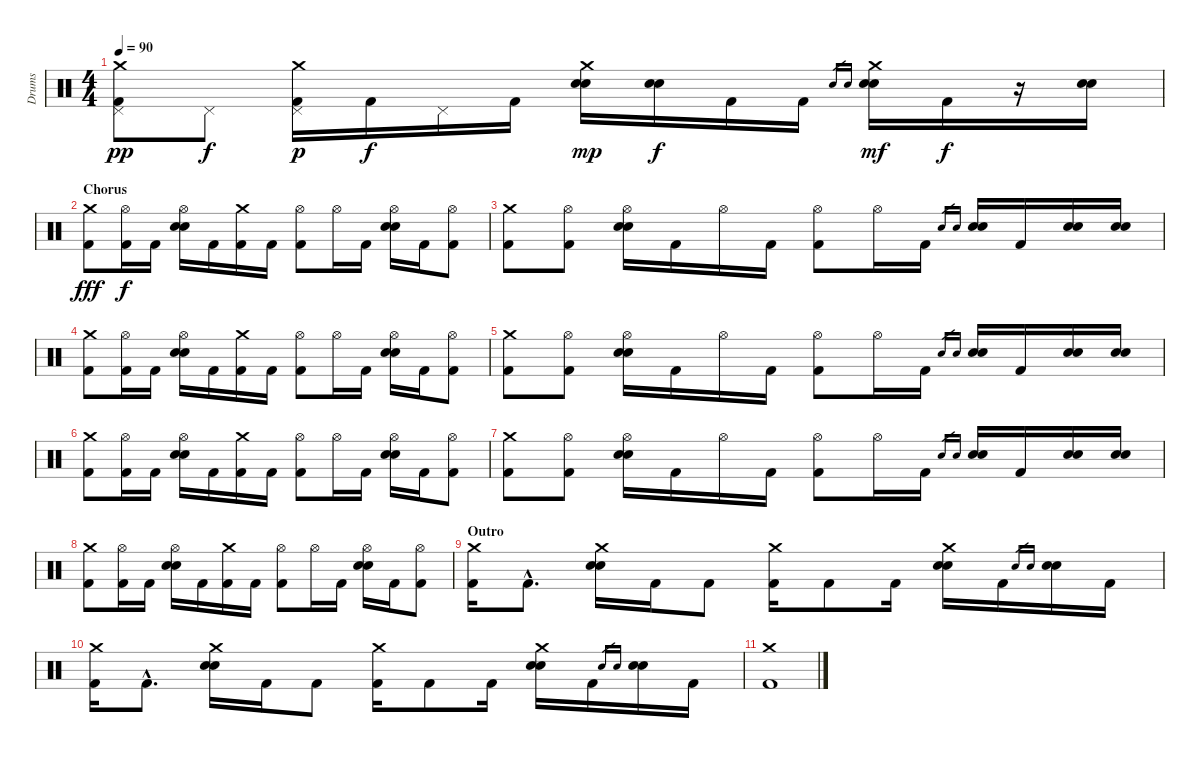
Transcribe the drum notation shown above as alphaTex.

\track ("Drums" "Drums") {instrument percussion}
\staff {score}
\articulation defaults
\ts (4 4)
\tempo 90
\clef neutral
\ks c
("Pedal Hi-Hat (hit)" "Kick (hit) 2" "Crash medium (hit)").8{dy pp} "Pedal Hi-Hat (hit)".8{dy f} ("Pedal Hi-Hat (hit)" "Kick (hit) 2" "Crash medium (hit)").16{dy p} "Kick (hit) 2".16{dy f} "Pedal Hi-Hat (hit)".16 "Kick (hit) 2".16 ("Snare (hit) 2" "Electric Snare (hit)" "Crash medium (hit)").16{dy mp} ("Snare (hit) 2" "Electric Snare (hit)").16{dy f} "Kick (hit) 2".16 "Kick (hit) 2".16 "Snare (hit) 2".16{gr} "Electric Snare (hit)".16{gr} ("Snare (hit) 2" "Electric Snare (hit)" "Crash medium (hit)").16{dy mf} "Kick (hit) 2".16{dy f} r.16 ("Snare (hit) 2" "Electric Snare (hit)").16 |
\section ("" "Chorus")
("Crash medium (hit)" "Kick (hit) 2").8{dy fff} ("Hi-Hat (open)" "Kick (hit) 2").16{dy f} "Kick (hit) 2".16 ("Hi-Hat (open)" "Electric Snare (hit)" "Snare (hit) 2").16 "Kick (hit) 2".16 ("Crash medium (hit)" "Kick (hit) 2").16 "Kick (hit) 2".16 ("Hi-Hat (open)" "Kick (hit) 2").8 "Hi-Hat (open)".16 "Kick (hit) 2".16 ("Hi-Hat (open)" "Electric Snare (hit)" "Snare (hit) 2").16 "Kick (hit) 2".16 ("Hi-Hat (open)" "Kick (hit) 2").8 |
("Crash medium (hit)" "Kick (hit) 2").8 ("Hi-Hat (open)" "Kick (hit) 2").8 ("Hi-Hat (open)" "Electric Snare (hit)" "Snare (hit) 2").16 "Kick (hit) 2".16 "Hi-Hat (open)".16 "Kick (hit) 2".16 ("Hi-Hat (open)" "Kick (hit) 2").8 "Hi-Hat (open)".16 "Kick (hit) 2".16 "Electric Snare (hit)".16{gr} "Snare (hit) 2".16{gr} ("Electric Snare (hit)" "Snare (hit) 2").16 "Kick (hit) 2".16 ("Electric Snare (hit)" "Snare (hit) 2").16 ("Electric Snare (hit)" "Snare (hit) 2").16 |
("Crash medium (hit)" "Kick (hit) 2").8 ("Hi-Hat (open)" "Kick (hit) 2").16 "Kick (hit) 2".16 ("Hi-Hat (open)" "Electric Snare (hit)" "Snare (hit) 2").16 "Kick (hit) 2".16 ("Crash medium (hit)" "Kick (hit) 2").16 "Kick (hit) 2".16 ("Hi-Hat (open)" "Kick (hit) 2").8 "Hi-Hat (open)".16 "Kick (hit) 2".16 ("Hi-Hat (open)" "Electric Snare (hit)" "Snare (hit) 2").16 "Kick (hit) 2".16 ("Hi-Hat (open)" "Kick (hit) 2").8 |
("Crash medium (hit)" "Kick (hit) 2").8 ("Hi-Hat (open)" "Kick (hit) 2").8 ("Hi-Hat (open)" "Electric Snare (hit)" "Snare (hit) 2").16 "Kick (hit) 2".16 "Hi-Hat (open)".16 "Kick (hit) 2".16 ("Hi-Hat (open)" "Kick (hit) 2").8 "Hi-Hat (open)".16 "Kick (hit) 2".16 "Electric Snare (hit)".16{gr} "Snare (hit) 2".16{gr} ("Electric Snare (hit)" "Snare (hit) 2").16 "Kick (hit) 2".16 ("Electric Snare (hit)" "Snare (hit) 2").16 ("Electric Snare (hit)" "Snare (hit) 2").16 |
("Crash medium (hit)" "Kick (hit) 2").8 ("Hi-Hat (open)" "Kick (hit) 2").16 "Kick (hit) 2".16 ("Hi-Hat (open)" "Electric Snare (hit)" "Snare (hit) 2").16 "Kick (hit) 2".16 ("Crash medium (hit)" "Kick (hit) 2").16 "Kick (hit) 2".16 ("Hi-Hat (open)" "Kick (hit) 2").8 "Hi-Hat (open)".16 "Kick (hit) 2".16 ("Hi-Hat (open)" "Electric Snare (hit)" "Snare (hit) 2").16 "Kick (hit) 2".16 ("Hi-Hat (open)" "Kick (hit) 2").8 |
("Crash medium (hit)" "Kick (hit) 2").8 ("Hi-Hat (open)" "Kick (hit) 2").8 ("Hi-Hat (open)" "Electric Snare (hit)" "Snare (hit) 2").16 "Kick (hit) 2".16 "Hi-Hat (open)".16 "Kick (hit) 2".16 ("Hi-Hat (open)" "Kick (hit) 2").8 "Hi-Hat (open)".16 "Kick (hit) 2".16 "Electric Snare (hit)".16{gr} "Snare (hit) 2".16{gr} ("Electric Snare (hit)" "Snare (hit) 2").16 "Kick (hit) 2".16 ("Electric Snare (hit)" "Snare (hit) 2").16 ("Electric Snare (hit)" "Snare (hit) 2").16 |
("Crash medium (hit)" "Kick (hit) 2").8 ("Hi-Hat (open)" "Kick (hit) 2").16 "Kick (hit) 2".16 ("Hi-Hat (open)" "Electric Snare (hit)" "Snare (hit) 2").16 "Kick (hit) 2".16 ("Crash medium (hit)" "Kick (hit) 2").16 "Kick (hit) 2".16 ("Hi-Hat (open)" "Kick (hit) 2").8 "Hi-Hat (open)".16 "Kick (hit) 2".16 ("Hi-Hat (open)" "Electric Snare (hit)" "Snare (hit) 2").16 "Kick (hit) 2".16 ("Hi-Hat (open)" "Kick (hit) 2").8 |
\section ("" "Outro")
("Crash medium (hit)" "Kick (hit) 2").16 "Kick (hit) 2"{hac}.8{d} ("Crash medium (hit)" "Electric Snare (hit)" "Snare (hit) 2").16 "Kick (hit) 2".16 "Kick (hit) 2".8 ("Crash medium (hit)" "Kick (hit) 2").16 "Kick (hit) 2".8 "Kick (hit) 2".16 ("Crash medium (hit)" "Electric Snare (hit)" "Snare (hit) 2").16 "Kick (hit) 2".16 "Electric Snare (hit)".16{gr} "Snare (hit) 2".16{gr} ("Electric Snare (hit)" "Snare (hit) 2").16 "Kick (hit) 2".16 |
("Crash medium (hit)" "Kick (hit) 2").16 "Kick (hit) 2"{hac}.8{d} ("Crash medium (hit)" "Electric Snare (hit)" "Snare (hit) 2").16 "Kick (hit) 2".16 "Kick (hit) 2".8 ("Crash medium (hit)" "Kick (hit) 2").16 "Kick (hit) 2".8 "Kick (hit) 2".16 ("Crash medium (hit)" "Electric Snare (hit)" "Snare (hit) 2").16 "Kick (hit) 2".16 "Electric Snare (hit)".16{gr} "Snare (hit) 2".16{gr} ("Electric Snare (hit)" "Snare (hit) 2").16 "Kick (hit) 2".16 |
("Crash medium (hit)" "Kick (hit) 2").1
